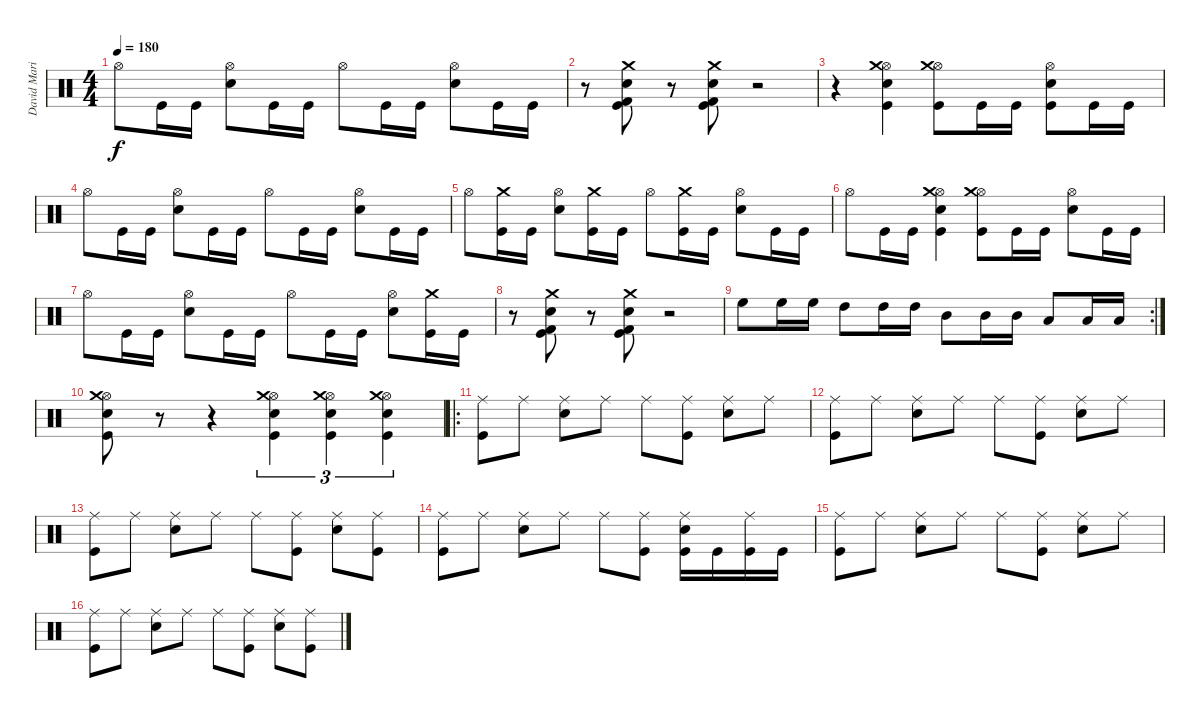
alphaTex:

\track ("David Marinero" "David Mari") {instrument percussion}
\staff {score}
\articulation defaults
\ts (4 4)
\tempo 180
\clef neutral
\ks c "Hi-Hat (open)".8{dy f} "Kick (hit)".16 "Kick (hit)".16
("Hi-Hat (open)" "Snare (hit) 2").8 "Kick (hit)".16 "Kick (hit)".16 "Hi-Hat (open)".8 "Kick (hit)".16 "Kick (hit)".16 ("Hi-Hat (open)" "Snare (hit) 2").8 "Kick (hit)".16 "Kick (hit)".16 |
r.8 ("Kick (hit) 2" "Snare (hit) 2" "Crash medium (hit)" "Kick (hit)").8 r.8 ("Kick (hit) 2" "Snare (hit) 2" "Crash medium (hit)" "Kick (hit)").8 r.2 |
r.4 ("Hi-Hat (open)" "Snare (hit) 2" "Crash medium (hit)" "Kick (hit)").4 ("Hi-Hat (open)" "Crash medium (hit)" "Kick (hit)").8 "Kick (hit)".16 "Kick (hit)".16 ("Hi-Hat (open)" "Snare (hit) 2" "Kick (hit)").8 "Kick (hit)".16 "Kick (hit)".16 |
"Hi-Hat (open)".8 "Kick (hit)".16 "Kick (hit)".16 ("Hi-Hat (open)" "Snare (hit) 2").8 "Kick (hit)".16 "Kick (hit)".16 "Hi-Hat (open)".8 "Kick (hit)".16 "Kick (hit)".16 ("Hi-Hat (open)" "Snare (hit) 2").8 "Kick (hit)".16 "Kick (hit)".16 |
"Hi-Hat (open)".8 ("Crash medium (hit)" "Kick (hit)").16 "Kick (hit)".16 ("Hi-Hat (open)" "Snare (hit) 2").8 ("Crash medium (hit)" "Kick (hit)").16 "Kick (hit)".16 "Hi-Hat (open)".8 ("Crash medium (hit)" "Kick (hit)").16 "Kick (hit)".16 ("Hi-Hat (open)" "Snare (hit) 2").8 "Kick (hit)".16 "Kick (hit)".16 |
"Hi-Hat (open)".8 "Kick (hit)".16 "Kick (hit)".16 ("Hi-Hat (open)" "Snare (hit) 2" "Crash medium (hit)" "Kick (hit)").4 ("Hi-Hat (open)" "Crash medium (hit)" "Kick (hit)").8 "Kick (hit)".16 "Kick (hit)".16 ("Hi-Hat (open)" "Snare (hit) 2").8 "Kick (hit)".16 "Kick (hit)".16 |
"Hi-Hat (open)".8 "Kick (hit)".16 "Kick (hit)".16 ("Hi-Hat (open)" "Snare (hit) 2").8 "Kick (hit)".16 "Kick (hit)".16 "Hi-Hat (open)".8 "Kick (hit)".16 "Kick (hit)".16 ("Hi-Hat (open)" "Snare (hit) 2").8 ("Crash medium (hit)" "Kick (hit)").16 "Kick (hit)".16 |
r.8 ("Kick (hit) 2" "Snare (hit) 2" "Crash medium (hit)" "Kick (hit)").8 r.8 ("Kick (hit) 2" "Snare (hit) 2" "Crash medium (hit)" "Kick (hit)").8 r.2 |
\rc 2 "High Floor Tom (hit)".8 "High Floor Tom (hit)".16 "High Floor Tom (hit)".16 "High Tom (hit)".8 "High Tom (hit)".16 "High Tom (hit)".16 "Mid Tom (hit)".8 "Mid Tom (hit)".16 "Mid Tom (hit)".16 "Low Tom (hit)".8 "Low Tom (hit)".16 "Low Tom (hit)".16
|
("Hi-Hat (open)" "Snare (hit) 2" "Crash medium (hit)" "Kick (hit)").8 r.8 r.4 ("Hi-Hat (open)" "Snare (hit) 2" "Crash medium (hit)" "Kick (hit)").4{tu (3 2)} ("Hi-Hat (open)" "Snare (hit) 2" "Crash medium (hit)" "Kick (hit)").4{tu (3 2)} ("Hi-Hat (open)" "Snare (hit) 2" "Crash medium (hit)" "Kick (hit)").4{tu (3 2)} |
\ro
("Ride (middle)" "Kick (hit)").8 "Ride (middle)".8 ("Ride (middle)" "Snare (hit) 2").8 "Ride (middle)".8 "Ride (middle)".8 ("Ride (middle)" "Kick (hit)").8 ("Ride (middle)" "Snare (hit) 2").8 "Ride (middle)".8 |
("Ride (middle)" "Kick (hit)").8 "Ride (middle)".8 ("Ride (middle)" "Snare (hit) 2").8 "Ride (middle)".8 "Ride (middle)".8 ("Ride (middle)" "Kick (hit)").8 ("Ride (middle)" "Snare (hit) 2").8 "Ride (middle)".8 |
("Ride (middle)" "Kick (hit)").8 "Ride (middle)".8 ("Ride (middle)" "Snare (hit) 2").8 "Ride (middle)".8 "Ride (middle)".8 ("Ride (middle)" "Kick (hit)").8 ("Ride (middle)" "Snare (hit) 2").8 ("Ride (middle)" "Kick (hit)").8 |
("Ride (middle)" "Kick (hit)").8 "Ride (middle)".8 ("Ride (middle)" "Snare (hit) 2").8 "Ride (middle)".8 "Ride (middle)".8 ("Ride (middle)" "Kick (hit)").8 ("Ride (middle)" "Snare (hit) 2" "Kick (hit)").16 "Kick (hit)".16 ("Ride (middle)" "Kick (hit)").16 "Kick (hit)".16 |
("Ride (middle)" "Kick (hit)").8 "Ride (middle)".8 ("Ride (middle)" "Snare (hit) 2").8 "Ride (middle)".8 "Ride (middle)".8 ("Ride (middle)" "Kick (hit)").8 ("Ride (middle)" "Snare (hit) 2").8 "Ride (middle)".8 |
("Ride (middle)" "Kick (hit)").8 "Ride (middle)".8 ("Ride (middle)" "Snare (hit) 2").8 "Ride (middle)".8 "Ride (middle)".8 ("Ride (middle)" "Kick (hit)").8 ("Ride (middle)" "Snare (hit) 2").8 ("Ride (middle)" "Kick (hit)").8
